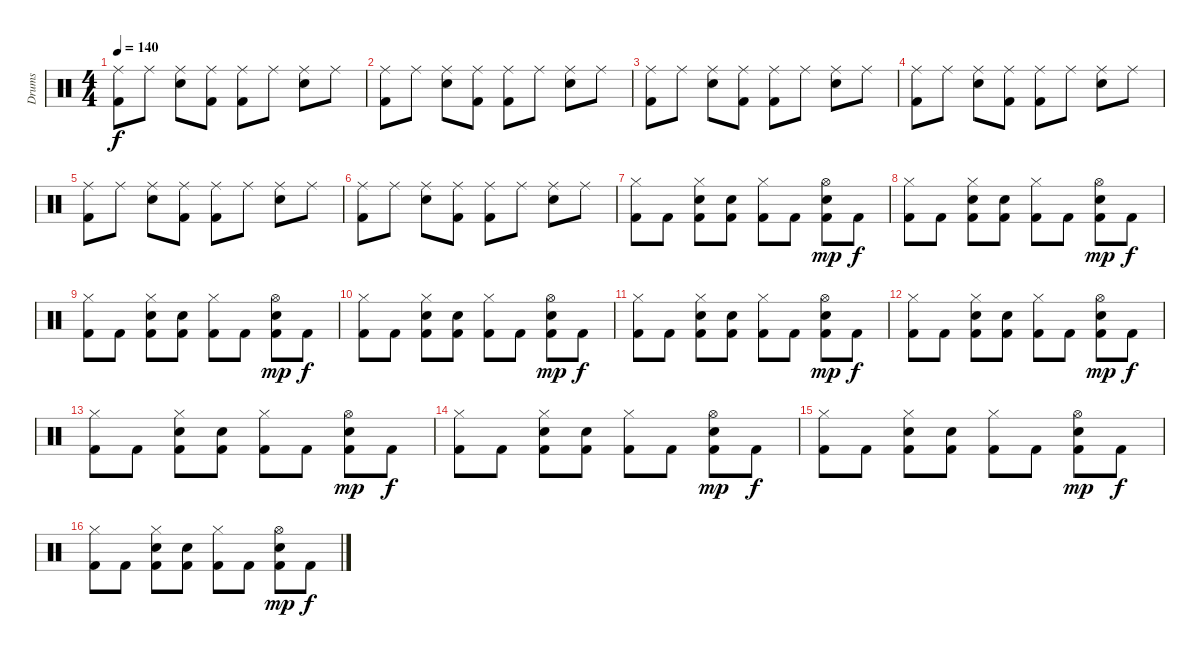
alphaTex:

\track ("Drums" "Drums") {instrument percussion}
\staff {score}
\articulation defaults
\ts (4 4)
\tempo 140
\clef neutral
\ks c
("Ride (middle)" "Kick (hit) 2").8{dy f} "Ride (middle)".8 ("Ride (middle)" "Electric Snare (hit)").8 ("Ride (middle)" "Kick (hit) 2").8 ("Ride (middle)" "Kick (hit) 2").8 "Ride (middle)".8 ("Ride (middle)" "Electric Snare (hit)").8 "Ride (middle)".8 |
("Ride (middle)" "Kick (hit) 2").8 "Ride (middle)".8 ("Ride (middle)" "Electric Snare (hit)").8 ("Ride (middle)" "Kick (hit) 2").8 ("Ride (middle)" "Kick (hit) 2").8 "Ride (middle)".8 ("Ride (middle)" "Electric Snare (hit)").8 "Ride (middle)".8 |
("Ride (middle)" "Kick (hit) 2").8 "Ride (middle)".8 ("Ride (middle)" "Electric Snare (hit)").8 ("Ride (middle)" "Kick (hit) 2").8 ("Ride (middle)" "Kick (hit) 2").8 "Ride (middle)".8 ("Ride (middle)" "Electric Snare (hit)").8 "Ride (middle)".8 |
("Ride (middle)" "Kick (hit) 2").8 "Ride (middle)".8 ("Ride (middle)" "Electric Snare (hit)").8 ("Ride (middle)" "Kick (hit) 2").8 ("Ride (middle)" "Kick (hit) 2").8 "Ride (middle)".8 ("Ride (middle)" "Electric Snare (hit)").8 "Ride (middle)".8 |
("Ride (middle)" "Kick (hit) 2").8 "Ride (middle)".8 ("Ride (middle)" "Electric Snare (hit)").8 ("Ride (middle)" "Kick (hit) 2").8 ("Ride (middle)" "Kick (hit) 2").8 "Ride (middle)".8 ("Ride (middle)" "Electric Snare (hit)").8 "Ride (middle)".8 |
("Ride (middle)" "Kick (hit) 2").8 "Ride (middle)".8 ("Ride (middle)" "Electric Snare (hit)").8 ("Ride (middle)" "Kick (hit) 2").8 ("Ride (middle)" "Kick (hit) 2").8 "Ride (middle)".8 ("Ride (middle)" "Electric Snare (hit)").8 "Ride (middle)".8 |
("Hi-Hat (closed)" "Kick (hit) 2").8 "Kick (hit) 2".8 ("Hi-Hat (closed)" "Electric Snare (hit)" "Kick (hit) 2").8 ("Electric Snare (hit)" "Kick (hit) 2").8 ("Hi-Hat (closed)" "Kick (hit) 2").8 "Kick (hit) 2".8 ("Hi-Hat (open)" "Electric Snare (hit)" "Kick (hit) 2").8{dy mp} "Kick (hit) 2".8{dy f} |
("Hi-Hat (closed)" "Kick (hit) 2").8 "Kick (hit) 2".8 ("Hi-Hat (closed)" "Electric Snare (hit)" "Kick (hit) 2").8 ("Electric Snare (hit)" "Kick (hit) 2").8 ("Hi-Hat (closed)" "Kick (hit) 2").8 "Kick (hit) 2".8 ("Hi-Hat (open)" "Electric Snare (hit)" "Kick (hit) 2").8{dy mp} "Kick (hit) 2".8{dy f} |
("Hi-Hat (closed)" "Kick (hit) 2").8 "Kick (hit) 2".8 ("Hi-Hat (closed)" "Electric Snare (hit)" "Kick (hit) 2").8 ("Electric Snare (hit)" "Kick (hit) 2").8 ("Hi-Hat (closed)" "Kick (hit) 2").8 "Kick (hit) 2".8 ("Hi-Hat (open)" "Electric Snare (hit)" "Kick (hit) 2").8{dy mp} "Kick (hit) 2".8{dy f} |
("Hi-Hat (closed)" "Kick (hit) 2").8 "Kick (hit) 2".8 ("Hi-Hat (closed)" "Electric Snare (hit)" "Kick (hit) 2").8 ("Electric Snare (hit)" "Kick (hit) 2").8 ("Hi-Hat (closed)" "Kick (hit) 2").8 "Kick (hit) 2".8 ("Hi-Hat (open)" "Electric Snare (hit)" "Kick (hit) 2").8{dy mp} "Kick (hit) 2".8{dy f} |
("Hi-Hat (closed)" "Kick (hit) 2").8 "Kick (hit) 2".8 ("Hi-Hat (closed)" "Electric Snare (hit)" "Kick (hit) 2").8 ("Electric Snare (hit)" "Kick (hit) 2").8 ("Hi-Hat (closed)" "Kick (hit) 2").8 "Kick (hit) 2".8 ("Hi-Hat (open)" "Electric Snare (hit)" "Kick (hit) 2").8{dy mp} "Kick (hit) 2".8{dy f} |
("Hi-Hat (closed)" "Kick (hit) 2").8 "Kick (hit) 2".8 ("Hi-Hat (closed)" "Electric Snare (hit)" "Kick (hit) 2").8 ("Electric Snare (hit)" "Kick (hit) 2").8 ("Hi-Hat (closed)" "Kick (hit) 2").8 "Kick (hit) 2".8 ("Hi-Hat (open)" "Electric Snare (hit)" "Kick (hit) 2").8{dy mp} "Kick (hit) 2".8{dy f} |
("Hi-Hat (closed)" "Kick (hit) 2").8 "Kick (hit) 2".8 ("Hi-Hat (closed)" "Electric Snare (hit)" "Kick (hit) 2").8 ("Electric Snare (hit)" "Kick (hit) 2").8 ("Hi-Hat (closed)" "Kick (hit) 2").8 "Kick (hit) 2".8 ("Hi-Hat (open)" "Electric Snare (hit)" "Kick (hit) 2").8{dy mp} "Kick (hit) 2".8{dy f} |
("Hi-Hat (closed)" "Kick (hit) 2").8 "Kick (hit) 2".8 ("Hi-Hat (closed)" "Electric Snare (hit)" "Kick (hit) 2").8 ("Electric Snare (hit)" "Kick (hit) 2").8 ("Hi-Hat (closed)" "Kick (hit) 2").8 "Kick (hit) 2".8 ("Hi-Hat (open)" "Electric Snare (hit)" "Kick (hit) 2").8{dy mp} "Kick (hit) 2".8{dy f} |
("Hi-Hat (closed)" "Kick (hit) 2").8 "Kick (hit) 2".8 ("Hi-Hat (closed)" "Electric Snare (hit)" "Kick (hit) 2").8 ("Electric Snare (hit)" "Kick (hit) 2").8 ("Hi-Hat (closed)" "Kick (hit) 2").8 "Kick (hit) 2".8 ("Hi-Hat (open)" "Electric Snare (hit)" "Kick (hit) 2").8{dy mp} "Kick (hit) 2".8{dy f} |
("Hi-Hat (closed)" "Kick (hit) 2").8 "Kick (hit) 2".8 ("Hi-Hat (closed)" "Electric Snare (hit)" "Kick (hit) 2").8 ("Electric Snare (hit)" "Kick (hit) 2").8 ("Hi-Hat (closed)" "Kick (hit) 2").8 "Kick (hit) 2".8 ("Hi-Hat (open)" "Electric Snare (hit)" "Kick (hit) 2").8{dy mp} "Kick (hit) 2".8{dy f}
